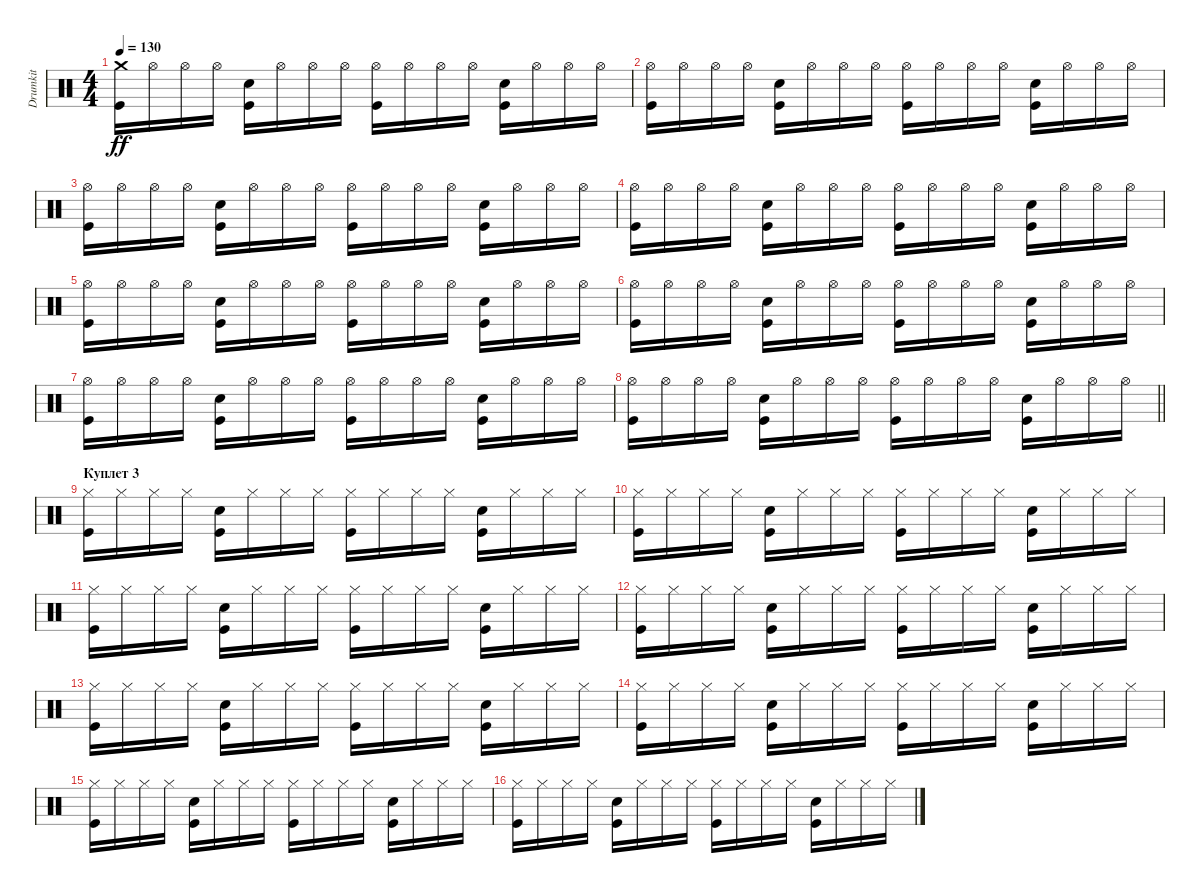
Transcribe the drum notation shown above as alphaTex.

\track ("Drumkit" "Drumkit") {instrument percussion}
\staff {score}
\articulation defaults
\ts (4 4)
\tempo 130
\clef neutral
\ks c
("Kick (hit)" "Crash medium (hit)").16{dy ff} "Hi-Hat (open)".16 "Hi-Hat (open)".16 "Hi-Hat (open)".16 ("Snare (hit) 2" "Kick (hit)").16 "Hi-Hat (open)".16 "Hi-Hat (open)".16 "Hi-Hat (open)".16 ("Hi-Hat (open)" "Kick (hit)").16 "Hi-Hat (open)".16 "Hi-Hat (open)".16 "Hi-Hat (open)".16 ("Snare (hit) 2" "Kick (hit)").16 "Hi-Hat (open)".16 "Hi-Hat (open)".16 "Hi-Hat (open)".16 |
("Hi-Hat (open)" "Kick (hit)").16 "Hi-Hat (open)".16 "Hi-Hat (open)".16 "Hi-Hat (open)".16 ("Snare (hit) 2" "Kick (hit)").16 "Hi-Hat (open)".16 "Hi-Hat (open)".16 "Hi-Hat (open)".16 ("Hi-Hat (open)" "Kick (hit)").16 "Hi-Hat (open)".16 "Hi-Hat (open)".16 "Hi-Hat (open)".16 ("Snare (hit) 2" "Kick (hit)").16 "Hi-Hat (open)".16 "Hi-Hat (open)".16 "Hi-Hat (open)".16 |
("Hi-Hat (open)" "Kick (hit)").16 "Hi-Hat (open)".16 "Hi-Hat (open)".16 "Hi-Hat (open)".16 ("Snare (hit) 2" "Kick (hit)").16 "Hi-Hat (open)".16 "Hi-Hat (open)".16 "Hi-Hat (open)".16 ("Hi-Hat (open)" "Kick (hit)").16 "Hi-Hat (open)".16 "Hi-Hat (open)".16 "Hi-Hat (open)".16 ("Snare (hit) 2" "Kick (hit)").16 "Hi-Hat (open)".16 "Hi-Hat (open)".16 "Hi-Hat (open)".16 |
("Hi-Hat (open)" "Kick (hit)").16 "Hi-Hat (open)".16 "Hi-Hat (open)".16 "Hi-Hat (open)".16 ("Snare (hit) 2" "Kick (hit)").16 "Hi-Hat (open)".16 "Hi-Hat (open)".16 "Hi-Hat (open)".16 ("Hi-Hat (open)" "Kick (hit)").16 "Hi-Hat (open)".16 "Hi-Hat (open)".16 "Hi-Hat (open)".16 ("Snare (hit) 2" "Kick (hit)").16 "Hi-Hat (open)".16 "Hi-Hat (open)".16 "Hi-Hat (open)".16 |
("Hi-Hat (open)" "Kick (hit)").16 "Hi-Hat (open)".16 "Hi-Hat (open)".16 "Hi-Hat (open)".16 ("Snare (hit) 2" "Kick (hit)").16 "Hi-Hat (open)".16 "Hi-Hat (open)".16 "Hi-Hat (open)".16 ("Hi-Hat (open)" "Kick (hit)").16 "Hi-Hat (open)".16 "Hi-Hat (open)".16 "Hi-Hat (open)".16 ("Snare (hit) 2" "Kick (hit)").16 "Hi-Hat (open)".16 "Hi-Hat (open)".16 "Hi-Hat (open)".16 |
("Hi-Hat (open)" "Kick (hit)").16 "Hi-Hat (open)".16 "Hi-Hat (open)".16 "Hi-Hat (open)".16 ("Snare (hit) 2" "Kick (hit)").16 "Hi-Hat (open)".16 "Hi-Hat (open)".16 "Hi-Hat (open)".16 ("Hi-Hat (open)" "Kick (hit)").16 "Hi-Hat (open)".16 "Hi-Hat (open)".16 "Hi-Hat (open)".16 ("Snare (hit) 2" "Kick (hit)").16 "Hi-Hat (open)".16 "Hi-Hat (open)".16 "Hi-Hat (open)".16 |
("Hi-Hat (open)" "Kick (hit)").16 "Hi-Hat (open)".16 "Hi-Hat (open)".16 "Hi-Hat (open)".16 ("Snare (hit) 2" "Kick (hit)").16 "Hi-Hat (open)".16 "Hi-Hat (open)".16 "Hi-Hat (open)".16 ("Hi-Hat (open)" "Kick (hit)").16 "Hi-Hat (open)".16 "Hi-Hat (open)".16 "Hi-Hat (open)".16 ("Snare (hit) 2" "Kick (hit)").16 "Hi-Hat (open)".16 "Hi-Hat (open)".16 "Hi-Hat (open)".16 |
\barLineRight lightlight
("Hi-Hat (open)" "Kick (hit)").16 "Hi-Hat (open)".16 "Hi-Hat (open)".16 "Hi-Hat (open)".16 ("Snare (hit) 2" "Kick (hit)").16 "Hi-Hat (open)".16 "Hi-Hat (open)".16 "Hi-Hat (open)".16 ("Hi-Hat (open)" "Kick (hit)").16 "Hi-Hat (open)".16 "Hi-Hat (open)".16 "Hi-Hat (open)".16 ("Snare (hit) 2" "Kick (hit)").16 "Hi-Hat (open)".16 "Hi-Hat (open)".16 "Hi-Hat (open)".16 |
\section ("" "Куплет 3")
("Hi-Hat (closed)" "Kick (hit)").16 "Hi-Hat (closed)".16 "Hi-Hat (closed)".16 "Hi-Hat (closed)".16 ("Kick (hit)" "Snare (hit) 2").16 "Hi-Hat (closed)".16 "Hi-Hat (closed)".16 "Hi-Hat (closed)".16 ("Hi-Hat (closed)" "Kick (hit)").16 "Hi-Hat (closed)".16 "Hi-Hat (closed)".16 "Hi-Hat (closed)".16 ("Kick (hit)" "Snare (hit) 2").16 "Hi-Hat (closed)".16 "Hi-Hat (closed)".16 "Hi-Hat (closed)".16 |
("Hi-Hat (closed)" "Kick (hit)").16 "Hi-Hat (closed)".16 "Hi-Hat (closed)".16 "Hi-Hat (closed)".16 ("Kick (hit)" "Snare (hit) 2").16 "Hi-Hat (closed)".16 "Hi-Hat (closed)".16 "Hi-Hat (closed)".16 ("Hi-Hat (closed)" "Kick (hit)").16 "Hi-Hat (closed)".16 "Hi-Hat (closed)".16 "Hi-Hat (closed)".16 ("Snare (hit) 2" "Kick (hit)").16 "Hi-Hat (closed)".16 "Hi-Hat (closed)".16 "Hi-Hat (closed)".16 |
("Hi-Hat (closed)" "Kick (hit)").16 "Hi-Hat (closed)".16 "Hi-Hat (closed)".16 "Hi-Hat (closed)".16 ("Kick (hit)" "Snare (hit) 2").16 "Hi-Hat (closed)".16 "Hi-Hat (closed)".16 "Hi-Hat (closed)".16 ("Hi-Hat (closed)" "Kick (hit)").16 "Hi-Hat (closed)".16 "Hi-Hat (closed)".16 "Hi-Hat (closed)".16 ("Kick (hit)" "Snare (hit) 2").16 "Hi-Hat (closed)".16 "Hi-Hat (closed)".16 "Hi-Hat (closed)".16 |
("Hi-Hat (closed)" "Kick (hit)").16 "Hi-Hat (closed)".16 "Hi-Hat (closed)".16 "Hi-Hat (closed)".16 ("Kick (hit)" "Snare (hit) 2").16 "Hi-Hat (closed)".16 "Hi-Hat (closed)".16 "Hi-Hat (closed)".16 ("Hi-Hat (closed)" "Kick (hit)").16 "Hi-Hat (closed)".16 "Hi-Hat (closed)".16 "Hi-Hat (closed)".16 ("Snare (hit) 2" "Kick (hit)").16 "Hi-Hat (closed)".16 "Hi-Hat (closed)".16 "Hi-Hat (closed)".16 |
("Hi-Hat (closed)" "Kick (hit)").16 "Hi-Hat (closed)".16 "Hi-Hat (closed)".16 "Hi-Hat (closed)".16 ("Kick (hit)" "Snare (hit) 2").16 "Hi-Hat (closed)".16 "Hi-Hat (closed)".16 "Hi-Hat (closed)".16 ("Hi-Hat (closed)" "Kick (hit)").16 "Hi-Hat (closed)".16 "Hi-Hat (closed)".16 "Hi-Hat (closed)".16 ("Kick (hit)" "Snare (hit) 2").16 "Hi-Hat (closed)".16 "Hi-Hat (closed)".16 "Hi-Hat (closed)".16 |
("Hi-Hat (closed)" "Kick (hit)").16 "Hi-Hat (closed)".16 "Hi-Hat (closed)".16 "Hi-Hat (closed)".16 ("Kick (hit)" "Snare (hit) 2").16 "Hi-Hat (closed)".16 "Hi-Hat (closed)".16 "Hi-Hat (closed)".16 ("Hi-Hat (closed)" "Kick (hit)").16 "Hi-Hat (closed)".16 "Hi-Hat (closed)".16 "Hi-Hat (closed)".16 ("Snare (hit) 2" "Kick (hit)").16 "Hi-Hat (closed)".16 "Hi-Hat (closed)".16 "Hi-Hat (closed)".16 |
("Hi-Hat (closed)" "Kick (hit)").16 "Hi-Hat (closed)".16 "Hi-Hat (closed)".16 "Hi-Hat (closed)".16 ("Kick (hit)" "Snare (hit) 2").16 "Hi-Hat (closed)".16 "Hi-Hat (closed)".16 "Hi-Hat (closed)".16 ("Hi-Hat (closed)" "Kick (hit)").16 "Hi-Hat (closed)".16 "Hi-Hat (closed)".16 "Hi-Hat (closed)".16 ("Kick (hit)" "Snare (hit) 2").16 "Hi-Hat (closed)".16 "Hi-Hat (closed)".16 "Hi-Hat (closed)".16 |
("Hi-Hat (closed)" "Kick (hit)").16 "Hi-Hat (closed)".16 "Hi-Hat (closed)".16 "Hi-Hat (closed)".16 ("Kick (hit)" "Snare (hit) 2").16 "Hi-Hat (closed)".16 "Hi-Hat (closed)".16 "Hi-Hat (closed)".16 ("Hi-Hat (closed)" "Kick (hit)").16 "Hi-Hat (closed)".16 "Hi-Hat (closed)".16 "Hi-Hat (closed)".16 ("Snare (hit) 2" "Kick (hit)").16 "Hi-Hat (closed)".16 "Hi-Hat (closed)".16 "Hi-Hat (closed)".16
